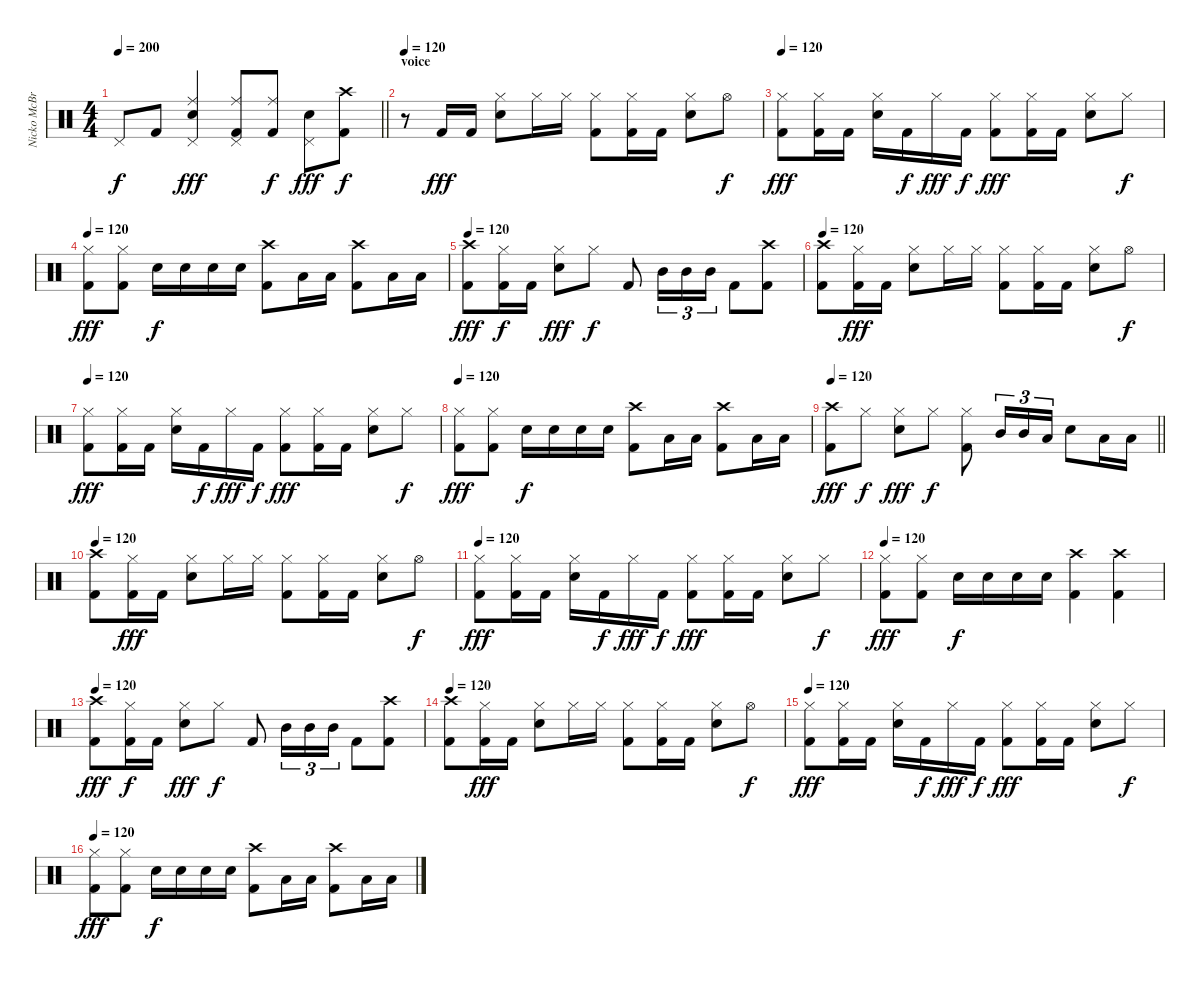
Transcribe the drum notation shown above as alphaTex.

\track ("Nicko McBrain" "Nicko McBr") {instrument percussion}
\staff {score}
\articulation defaults
\ts (4 4)
\tempo 200
\clef neutral
\barLineRight lightlight
\ks c "Pedal Hi-Hat (hit)".8{dy f} "Kick (hit) 2".8
("Ride (middle)" "Snare (hit) 2" "Pedal Hi-Hat (hit)").4{dy fff} ("Ride (middle)" "Pedal Hi-Hat (hit)" "Kick (hit) 2").8 ("Ride (middle)" "Kick (hit) 2").8{dy f} ("Snare (hit) 2" "Pedal Hi-Hat (hit)").8{dy fff} ("Crash high (hit)" "Kick (hit) 2").8{dy f} |
\section ("" "voice")
\tempo 120
r.8 "Kick (hit) 2".16{dy fff} "Kick (hit) 2".16 ("Hi-Hat (closed)" "Snare (hit) 2").8 "Hi-Hat (closed)".16 "Hi-Hat (closed)".16 ("Hi-Hat (closed)" "Kick (hit) 2").8 ("Hi-Hat (closed)" "Kick (hit) 2").16 "Kick (hit) 2".16 ("Hi-Hat (closed)" "Snare (hit) 2").8 "Hi-Hat (open)".8{dy f} |
\tempo 120
("Hi-Hat (closed)" "Kick (hit) 2").8{dy fff} ("Hi-Hat (closed)" "Kick (hit) 2").16 "Kick (hit) 2".16 ("Hi-Hat (closed)" "Snare (hit) 2").16 "Kick (hit) 2".16{dy f} "Hi-Hat (closed)".16{dy fff} "Kick (hit) 2".16{dy f} ("Hi-Hat (closed)" "Kick (hit) 2").8{dy fff} ("Hi-Hat (closed)" "Kick (hit) 2").16 "Kick (hit) 2".16 ("Hi-Hat (closed)" "Snare (hit) 2").8 "Hi-Hat (closed)".8{dy f} |
\tempo 120
("Hi-Hat (closed)" "Kick (hit) 2").8{dy fff} ("Hi-Hat (closed)" "Kick (hit) 2").8 "Snare (hit) 2".16{dy f} "Snare (hit) 2".16 "Snare (hit) 2".16 "Snare (hit) 2".16 ("Crash high (hit)" "Kick (hit) 2").8 "Low Tom (hit)".16 "Low Tom (hit)".16 ("Crash high (hit)" "Kick (hit) 2").8 "Low Floor Tom (hit)".16 "Low Floor Tom (hit)".16 |
\tempo 120
("Crash high (hit)" "Kick (hit) 2").8{dy fff} ("Hi-Hat (closed)" "Kick (hit) 2").16{dy f} "Kick (hit) 2".16 ("Hi-Hat (closed)" "Snare (hit) 2").8{dy fff} "Hi-Hat (closed)".8{dy f} "Kick (hit) 2".8 "Mid Tom (hit)".16{tu (3 2)} "Mid Tom (hit)".16{tu (3 2)} "Mid Tom (hit)".16{tu (3 2)} "Kick (hit) 2".8 ("Crash high (hit)" "Kick (hit) 2").8 |
\tempo 120
("Crash high (hit)" "Kick (hit) 2").8 ("Hi-Hat (closed)" "Kick (hit) 2").16{dy fff} "Kick (hit) 2".16 ("Hi-Hat (closed)" "Snare (hit) 2").8 "Hi-Hat (closed)".16 "Hi-Hat (closed)".16 ("Hi-Hat (closed)" "Kick (hit) 2").8 ("Hi-Hat (closed)" "Kick (hit) 2").16 "Kick (hit) 2".16 ("Hi-Hat (closed)" "Snare (hit) 2").8 "Hi-Hat (open)".8{dy f} |
\tempo 120
("Hi-Hat (closed)" "Kick (hit) 2").8{dy fff} ("Hi-Hat (closed)" "Kick (hit) 2").16 "Kick (hit) 2".16 ("Hi-Hat (closed)" "Snare (hit) 2").16 "Kick (hit) 2".16{dy f} "Hi-Hat (closed)".16{dy fff} "Kick (hit) 2".16{dy f} ("Hi-Hat (closed)" "Kick (hit) 2").8{dy fff} ("Hi-Hat (closed)" "Kick (hit) 2").16 "Kick (hit) 2".16 ("Hi-Hat (closed)" "Snare (hit) 2").8 "Hi-Hat (closed)".8{dy f} |
\tempo 120
("Hi-Hat (closed)" "Kick (hit) 2").8{dy fff} ("Hi-Hat (closed)" "Kick (hit) 2").8 "Snare (hit) 2".16{dy f} "Snare (hit) 2".16 "Snare (hit) 2".16 "Snare (hit) 2".16 ("Crash high (hit)" "Kick (hit) 2").8 "Low Tom (hit)".16 "Low Tom (hit)".16 ("Crash high (hit)" "Kick (hit) 2").8 "Low Floor Tom (hit)".16 "Low Floor Tom (hit)".16 |
\tempo 120
\barLineRight lightlight
("Crash high (hit)" "Kick (hit) 2").8{dy fff} "Hi-Hat (closed)".8{dy f} ("Hi-Hat (closed)" "Snare (hit) 2").8{dy fff} "Hi-Hat (closed)".8{dy f} ("Hi-Hat (closed)" "Kick (hit) 2").8 "Mid Tom (hit)".16{tu (3 2)} "Mid Tom (hit)".16{tu (3 2)} "Low Tom (hit)".16{tu (3 2)} "Snare (hit) 2".8 "Low Floor Tom (hit)".16 "Low Floor Tom (hit)".16 |
\tempo 120
("Crash high (hit)" "Kick (hit) 2").8 ("Hi-Hat (closed)" "Kick (hit) 2").16{dy fff} "Kick (hit) 2".16 ("Hi-Hat (closed)" "Snare (hit) 2").8 "Hi-Hat (closed)".16 "Hi-Hat (closed)".16 ("Hi-Hat (closed)" "Kick (hit) 2").8 ("Hi-Hat (closed)" "Kick (hit) 2").16 "Kick (hit) 2".16 ("Hi-Hat (closed)" "Snare (hit) 2").8 "Hi-Hat (open)".8{dy f} |
\tempo 120
("Hi-Hat (closed)" "Kick (hit) 2").8{dy fff} ("Hi-Hat (closed)" "Kick (hit) 2").16 "Kick (hit) 2".16 ("Hi-Hat (closed)" "Snare (hit) 2").16 "Kick (hit) 2".16{dy f} "Hi-Hat (closed)".16{dy fff} "Kick (hit) 2".16{dy f} ("Hi-Hat (closed)" "Kick (hit) 2").8{dy fff} ("Hi-Hat (closed)" "Kick (hit) 2").16 "Kick (hit) 2".16 ("Hi-Hat (closed)" "Snare (hit) 2").8 "Hi-Hat (closed)".8{dy f} |
\tempo 120
("Hi-Hat (closed)" "Kick (hit) 2").8{dy fff} ("Hi-Hat (closed)" "Kick (hit) 2").8 "Snare (hit) 2".16{dy f} "Snare (hit) 2".16 "Snare (hit) 2".16 "Snare (hit) 2".16 ("Crash high (hit)" "Kick (hit) 2").4 ("Crash high (hit)" "Kick (hit) 2").4 |
\tempo 120
("Crash high (hit)" "Kick (hit) 2").8{dy fff} ("Hi-Hat (closed)" "Kick (hit) 2").16{dy f} "Kick (hit) 2".16 ("Hi-Hat (closed)" "Snare (hit) 2").8{dy fff} "Hi-Hat (closed)".8{dy f} "Kick (hit) 2".8 "Mid Tom (hit)".16{tu (3 2)} "Mid Tom (hit)".16{tu (3 2)} "Mid Tom (hit)".16{tu (3 2)} "Kick (hit) 2".8 ("Crash high (hit)" "Kick (hit) 2").8 |
\tempo 120
("Crash high (hit)" "Kick (hit) 2").8 ("Hi-Hat (closed)" "Kick (hit) 2").16{dy fff} "Kick (hit) 2".16 ("Hi-Hat (closed)" "Snare (hit) 2").8 "Hi-Hat (closed)".16 "Hi-Hat (closed)".16 ("Hi-Hat (closed)" "Kick (hit) 2").8 ("Hi-Hat (closed)" "Kick (hit) 2").16 "Kick (hit) 2".16 ("Hi-Hat (closed)" "Snare (hit) 2").8 "Hi-Hat (open)".8{dy f} |
\tempo 120
("Hi-Hat (closed)" "Kick (hit) 2").8{dy fff} ("Hi-Hat (closed)" "Kick (hit) 2").16 "Kick (hit) 2".16 ("Hi-Hat (closed)" "Snare (hit) 2").16 "Kick (hit) 2".16{dy f} "Hi-Hat (closed)".16{dy fff} "Kick (hit) 2".16{dy f} ("Hi-Hat (closed)" "Kick (hit) 2").8{dy fff} ("Hi-Hat (closed)" "Kick (hit) 2").16 "Kick (hit) 2".16 ("Hi-Hat (closed)" "Snare (hit) 2").8 "Hi-Hat (closed)".8{dy f} |
\tempo 120
("Hi-Hat (closed)" "Kick (hit) 2").8{dy fff} ("Hi-Hat (closed)" "Kick (hit) 2").8 "Snare (hit) 2".16{dy f} "Snare (hit) 2".16 "Snare (hit) 2".16 "Snare (hit) 2".16 ("Crash high (hit)" "Kick (hit) 2").8 "Low Tom (hit)".16 "Low Tom (hit)".16 ("Crash high (hit)" "Kick (hit) 2").8 "Low Floor Tom (hit)".16 "Low Floor Tom (hit)".16
